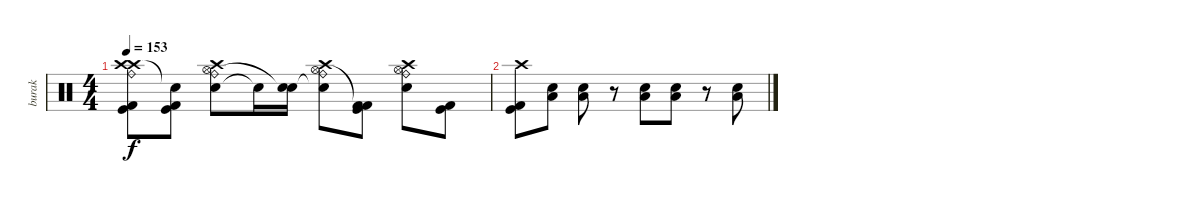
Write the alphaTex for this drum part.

\track ("burak" "burak") {instrument percussion}
\staff {score}
\articulation defaults
\ts (4 4)
\tempo 153
\clef neutral
\ks c
("Kick (hit) 2" "Kick (hit)" "Crash high (hit)" "Crash high (hit)" "Ride (bell)").8{dy f} ("Kick (hit) 2" "Kick (hit)" "Snare (hit)"{t}).8 ("Electric Snare (hit)" "Hi-Hat (open)" "Crash high (hit)" "Ride (bell)").8 "Snare (hit)"{t}.16 ("Electric Snare (hit)" "Snare (hit)"{t}).16 ("Snare (hit)"{t} "Hi-Hat (open)" "Crash high (hit)" "Ride (bell)").8 ("Kick (hit)" "Kick (hit) 2"{t} "Kick (hit) 2").8 ("Hi-Hat (open)" "Electric Snare (hit)" "Crash high (hit)" "Ride (bell)").8 ("Kick (hit)" "Kick (hit) 2").8 |
("Crash high (hit)" "Kick (hit) 2" "Kick (hit)").8 ("Low Floor Tom (hit)" "Electric Snare (hit)").8 ("Low Floor Tom (hit)" "Electric Snare (hit)").8 r.8 ("Low Floor Tom (hit)" "Electric Snare (hit)").8 ("Low Floor Tom (hit)" "Electric Snare (hit)").8 r.8 ("Electric Snare (hit)" "Low Floor Tom (hit)").8
